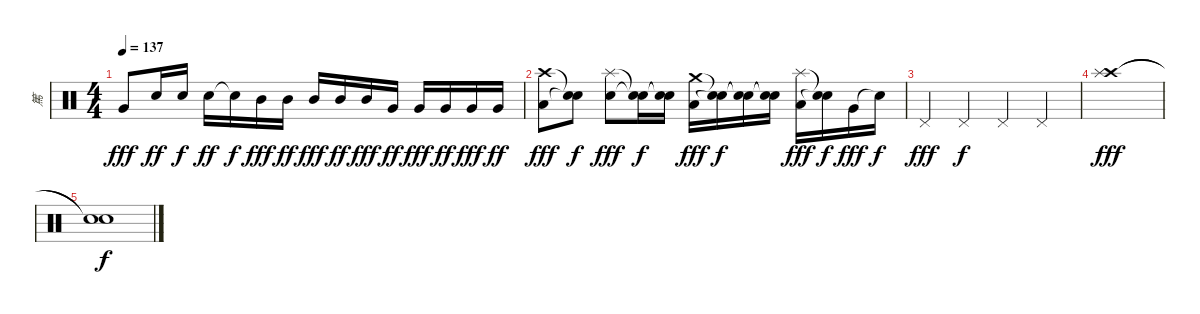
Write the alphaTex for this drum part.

\track ("篤" "篤") {instrument percussion}
\staff {score}
\articulation defaults
\ts (4 4)
\tempo 137
\clef neutral
\ks c "Very Low Tom (hit)".8{dy fff} "Snare (hit) 2".16{dy ff} "Snare (hit) 2".16{dy f} "Snare (hit) 2".16{dy ff} "Snare (hit)"{t}.16{dy f} "Mid Tom (hit)".16{dy fff} "Mid Tom (hit)".16{dy ff} "Mid Tom (hit)".16{dy fff} "Mid Tom (hit)".16{dy ff} "Mid Tom (hit)".16{dy fff} "Very Low Tom (hit)".16{dy ff} "Very Low Tom (hit)".16{dy fff} "Very Low Tom (hit)".16{dy ff} "Very Low Tom (hit)".16{dy fff} "Very Low Tom (hit)".16{dy ff}
|
("Crash high (hit)" "Low Floor Tom (hit)").8{dy fff} ("Snare (hit)"{t} "Snare (hit)"{t}).8{dy f} ("Splash (hit)" "Snare (hit) 2").8{dy fff} ("Snare (hit)"{t} "Snare (hit)"{t}).16{dy f} ("Snare (hit)"{t} "Snare (hit)"{t}).16 ("Crash medium (hit)" "Low Tom (hit)").16{dy fff} ("Snare (hit)"{t} "Snare (hit)"{t}).16{dy f} ("Snare (hit)"{t} "Snare (hit)"{t}).16 ("Snare (hit)"{t} "Snare (hit)"{t}).16 ("Splash (hit)" "Low Floor Tom (hit)").16{dy fff} ("Snare (hit)"{t} "Snare (hit)"{t}).16{dy f} "Very Low Tom (hit)".16{dy fff} "Snare (hit)"{t}.16{dy f} |
"Pedal Hi-Hat (hit)".4{dy fff} "Pedal Hi-Hat (hit)".4{dy f} "Pedal Hi-Hat (hit)".4 "Pedal Hi-Hat (hit)".4 |
("Crash high (hit)" "Splash (hit)").1{dy fff} |
("Snare (hit)"{t} "Snare (hit)"{t}).1{dy f}
